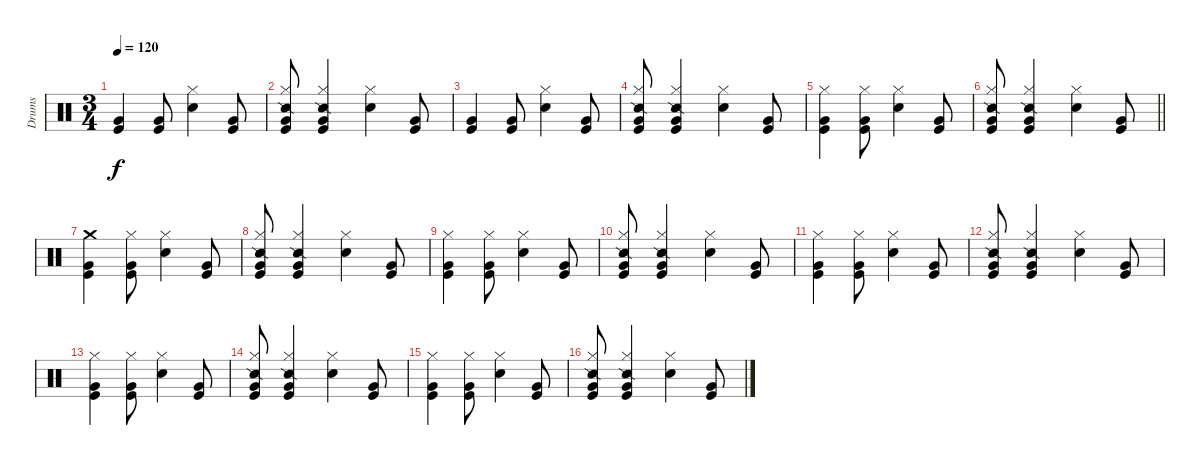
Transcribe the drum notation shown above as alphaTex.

\track ("Drums" "Drums") {instrument percussion}
\staff {score}
\articulation defaults
\ts (3 4)
\tempo 120
\clef neutral
\ks c
("Very Low Tom (hit)" "Kick (hit)").4{dy f} ("Very Low Tom (hit)" "Kick (hit)").8 ("Hi-Hat (closed)" "Electric Snare (hit)").4 ("Very Low Tom (hit)" "Kick (hit)").8 |
("Hi-Hat (closed)" "Snare (side stick) 2" "Very Low Tom (hit)" "Kick (hit)").8 ("Hi-Hat (closed)" "Snare (side stick) 2" "Very Low Tom (hit)" "Kick (hit)").4 ("Hi-Hat (closed)" "Electric Snare (hit)").4 ("Very Low Tom (hit)" "Kick (hit)").8 |
("Very Low Tom (hit)" "Kick (hit)").4 ("Very Low Tom (hit)" "Kick (hit)").8 ("Hi-Hat (closed)" "Electric Snare (hit)").4 ("Very Low Tom (hit)" "Kick (hit)").8 |
("Hi-Hat (closed)" "Snare (side stick) 2" "Very Low Tom (hit)" "Kick (hit)").8 ("Hi-Hat (closed)" "Snare (side stick) 2" "Very Low Tom (hit)" "Kick (hit)").4 ("Hi-Hat (closed)" "Electric Snare (hit)").4 ("Very Low Tom (hit)" "Kick (hit)").8 |
("Hi-Hat (closed)" "Very Low Tom (hit)" "Kick (hit)").4 ("Hi-Hat (closed)" "Very Low Tom (hit)" "Kick (hit)").8 ("Hi-Hat (closed)" "Electric Snare (hit)").4 ("Very Low Tom (hit)" "Kick (hit)").8 |
\barLineRight lightlight
("Hi-Hat (closed)" "Snare (side stick) 2" "Very Low Tom (hit)" "Kick (hit)").8 ("Hi-Hat (closed)" "Snare (side stick) 2" "Very Low Tom (hit)" "Kick (hit)").4 ("Hi-Hat (closed)" "Electric Snare (hit)").4 ("Very Low Tom (hit)" "Kick (hit)").8 |
("Crash medium (hit)" "Very Low Tom (hit)" "Kick (hit)").4 ("Hi-Hat (closed)" "Very Low Tom (hit)" "Kick (hit)").8 ("Hi-Hat (closed)" "Electric Snare (hit)").4 ("Very Low Tom (hit)" "Kick (hit)").8 |
("Hi-Hat (closed)" "Snare (side stick) 2" "Very Low Tom (hit)" "Kick (hit)").8 ("Hi-Hat (closed)" "Snare (side stick) 2" "Very Low Tom (hit)" "Kick (hit)").4 ("Hi-Hat (closed)" "Electric Snare (hit)").4 ("Very Low Tom (hit)" "Kick (hit)").8 |
("Hi-Hat (closed)" "Very Low Tom (hit)" "Kick (hit)").4 ("Hi-Hat (closed)" "Very Low Tom (hit)" "Kick (hit)").8 ("Hi-Hat (closed)" "Electric Snare (hit)").4 ("Very Low Tom (hit)" "Kick (hit)").8 |
("Hi-Hat (closed)" "Snare (side stick) 2" "Very Low Tom (hit)" "Kick (hit)").8 ("Hi-Hat (closed)" "Snare (side stick) 2" "Very Low Tom (hit)" "Kick (hit)").4 ("Hi-Hat (closed)" "Electric Snare (hit)").4 ("Very Low Tom (hit)" "Kick (hit)").8 |
("Hi-Hat (closed)" "Very Low Tom (hit)" "Kick (hit)").4 ("Hi-Hat (closed)" "Very Low Tom (hit)" "Kick (hit)").8 ("Hi-Hat (closed)" "Electric Snare (hit)").4 ("Very Low Tom (hit)" "Kick (hit)").8 |
("Hi-Hat (closed)" "Snare (side stick) 2" "Very Low Tom (hit)" "Kick (hit)").8 ("Hi-Hat (closed)" "Snare (side stick) 2" "Very Low Tom (hit)" "Kick (hit)").4 ("Hi-Hat (closed)" "Electric Snare (hit)").4 ("Very Low Tom (hit)" "Kick (hit)").8 |
("Hi-Hat (closed)" "Very Low Tom (hit)" "Kick (hit)").4 ("Hi-Hat (closed)" "Very Low Tom (hit)" "Kick (hit)").8 ("Hi-Hat (closed)" "Electric Snare (hit)").4 ("Very Low Tom (hit)" "Kick (hit)").8 |
("Hi-Hat (closed)" "Snare (side stick) 2" "Very Low Tom (hit)" "Kick (hit)").8 ("Hi-Hat (closed)" "Snare (side stick) 2" "Very Low Tom (hit)" "Kick (hit)").4 ("Hi-Hat (closed)" "Electric Snare (hit)").4 ("Very Low Tom (hit)" "Kick (hit)").8 |
("Hi-Hat (closed)" "Very Low Tom (hit)" "Kick (hit)").4 ("Hi-Hat (closed)" "Very Low Tom (hit)" "Kick (hit)").8 ("Hi-Hat (closed)" "Electric Snare (hit)").4 ("Very Low Tom (hit)" "Kick (hit)").8 |
("Hi-Hat (closed)" "Snare (side stick) 2" "Very Low Tom (hit)" "Kick (hit)").8 ("Hi-Hat (closed)" "Snare (side stick) 2" "Very Low Tom (hit)" "Kick (hit)").4 ("Hi-Hat (closed)" "Electric Snare (hit)").4 ("Very Low Tom (hit)" "Kick (hit)").8
